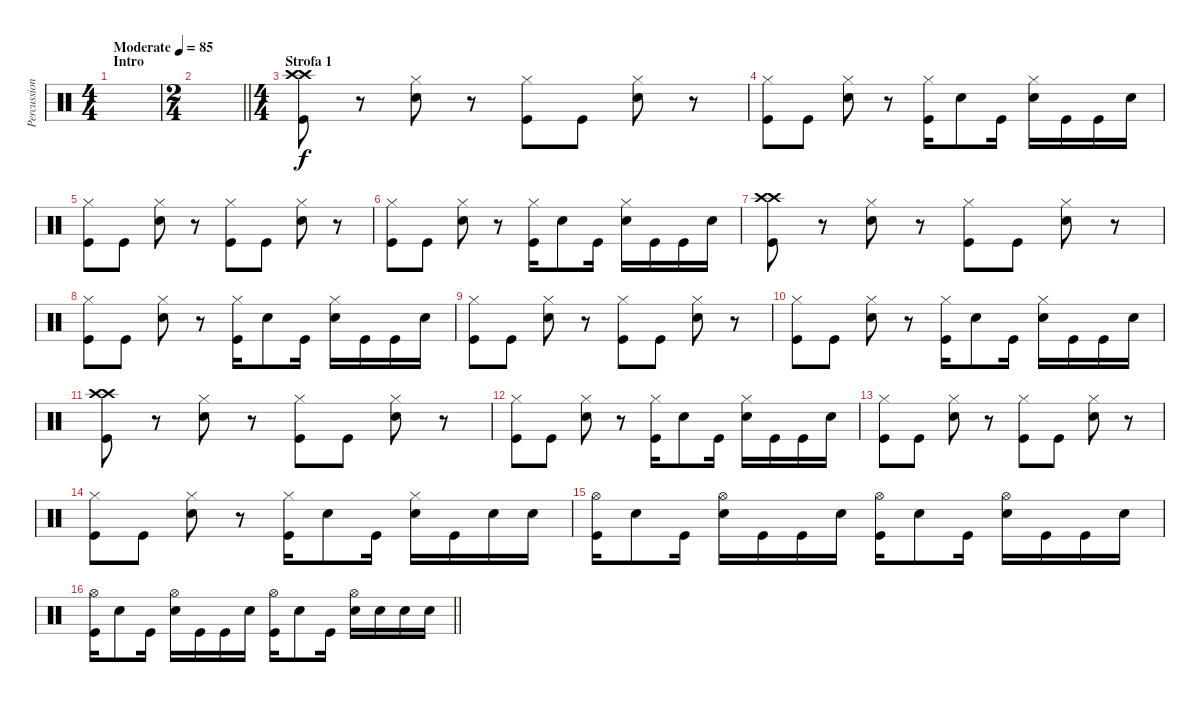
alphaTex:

\track ("Percussioni" "Percussion") {instrument percussion}
\staff {score}
\articulation defaults
\ts (4 4)
\section ("" "Intro")
\tempo (85 "Moderate")
\clef neutral
\ks c
|
\ts (2 4)
\barLineRight lightlight
|
\ts (4 4)
\section ("" "Strofa 1")
("Crash high (hit)" "Crash high (hit)" "Kick (hit)").8 r.8 ("Hi-Hat (closed)" "Snare (hit) 2").8 r.8 ("Hi-Hat (closed)" "Kick (hit)").8 "Kick (hit)".8 ("Hi-Hat (closed)" "Snare (hit) 2").8 r.8 |
("Hi-Hat (closed)" "Kick (hit)").8 "Kick (hit)".8 ("Hi-Hat (closed)" "Snare (hit) 2").8 r.8 ("Hi-Hat (closed)" "Kick (hit)").16 "Snare (hit) 2".8 "Kick (hit)".16 ("Hi-Hat (closed)" "Snare (hit) 2").16 "Kick (hit)".16 "Kick (hit)".16 "Snare (hit) 2".16 |
("Hi-Hat (closed)" "Kick (hit)").8 "Kick (hit)".8 ("Hi-Hat (closed)" "Snare (hit) 2").8 r.8 ("Hi-Hat (closed)" "Kick (hit)").8 "Kick (hit)".8 ("Hi-Hat (closed)" "Snare (hit) 2").8 r.8 |
("Hi-Hat (closed)" "Kick (hit)").8 "Kick (hit)".8 ("Hi-Hat (closed)" "Snare (hit) 2").8 r.8 ("Hi-Hat (closed)" "Kick (hit)").16 "Snare (hit) 2".8 "Kick (hit)".16 ("Hi-Hat (closed)" "Snare (hit) 2").16 "Kick (hit)".16 "Kick (hit)".16 "Snare (hit) 2".16 |
("Crash high (hit)" "Crash high (hit)" "Kick (hit)").8 r.8 ("Hi-Hat (closed)" "Snare (hit) 2").8 r.8 ("Hi-Hat (closed)" "Kick (hit)").8 "Kick (hit)".8 ("Hi-Hat (closed)" "Snare (hit) 2").8 r.8 |
("Hi-Hat (closed)" "Kick (hit)").8 "Kick (hit)".8 ("Hi-Hat (closed)" "Snare (hit) 2").8 r.8 ("Hi-Hat (closed)" "Kick (hit)").16 "Snare (hit) 2".8 "Kick (hit)".16 ("Hi-Hat (closed)" "Snare (hit) 2").16 "Kick (hit)".16 "Kick (hit)".16 "Snare (hit) 2".16 |
("Hi-Hat (closed)" "Kick (hit)").8 "Kick (hit)".8 ("Hi-Hat (closed)" "Snare (hit) 2").8 r.8 ("Hi-Hat (closed)" "Kick (hit)").8 "Kick (hit)".8 ("Hi-Hat (closed)" "Snare (hit) 2").8 r.8 |
("Hi-Hat (closed)" "Kick (hit)").8 "Kick (hit)".8 ("Hi-Hat (closed)" "Snare (hit) 2").8 r.8 ("Hi-Hat (closed)" "Kick (hit)").16 "Snare (hit) 2".8 "Kick (hit)".16 ("Hi-Hat (closed)" "Snare (hit) 2").16 "Kick (hit)".16 "Kick (hit)".16 "Snare (hit) 2".16 |
("Crash high (hit)" "Crash high (hit)" "Kick (hit)").8 r.8 ("Hi-Hat (closed)" "Snare (hit) 2").8 r.8 ("Hi-Hat (closed)" "Kick (hit)").8 "Kick (hit)".8 ("Hi-Hat (closed)" "Snare (hit) 2").8 r.8 |
("Hi-Hat (closed)" "Kick (hit)").8 "Kick (hit)".8 ("Hi-Hat (closed)" "Snare (hit) 2").8 r.8 ("Hi-Hat (closed)" "Kick (hit)").16 "Snare (hit) 2".8 "Kick (hit)".16 ("Hi-Hat (closed)" "Snare (hit) 2").16 "Kick (hit)".16 "Kick (hit)".16 "Snare (hit) 2".16 |
("Hi-Hat (closed)" "Kick (hit)").8 "Kick (hit)".8 ("Hi-Hat (closed)" "Snare (hit) 2").8 r.8 ("Hi-Hat (closed)" "Kick (hit)").8 "Kick (hit)".8 ("Hi-Hat (closed)" "Snare (hit) 2").8 r.8 |
("Hi-Hat (closed)" "Kick (hit)").8 "Kick (hit)".8 ("Hi-Hat (closed)" "Snare (hit) 2").8 r.8 ("Hi-Hat (closed)" "Kick (hit)").16 "Snare (hit) 2".8 "Kick (hit)".16 ("Hi-Hat (closed)" "Snare (hit) 2").16 "Kick (hit)".16 "Snare (hit) 2".16 "Snare (hit) 2".16 |
("Hi-Hat (open)" "Kick (hit)").16 "Snare (hit) 2".8 "Kick (hit)".16 ("Hi-Hat (open)" "Snare (hit) 2").16 "Kick (hit)".16 "Kick (hit)".16 "Snare (hit) 2".16 ("Hi-Hat (open)" "Kick (hit)").16 "Snare (hit) 2".8 "Kick (hit)".16 ("Hi-Hat (open)" "Snare (hit) 2").16 "Kick (hit)".16 "Kick (hit)".16 "Snare (hit) 2".16 |
\barLineRight lightlight
("Hi-Hat (open)" "Kick (hit)").16 "Snare (hit) 2".8 "Kick (hit)".16 ("Hi-Hat (open)" "Snare (hit) 2").16 "Kick (hit)".16 "Kick (hit)".16 "Snare (hit) 2".16 ("Hi-Hat (open)" "Kick (hit)").16 "Snare (hit) 2".8 "Kick (hit)".16 ("Hi-Hat (open)" "Snare (hit) 2").16 "Snare (hit) 2".16 "Snare (hit) 2".16 "Snare (hit) 2".16
